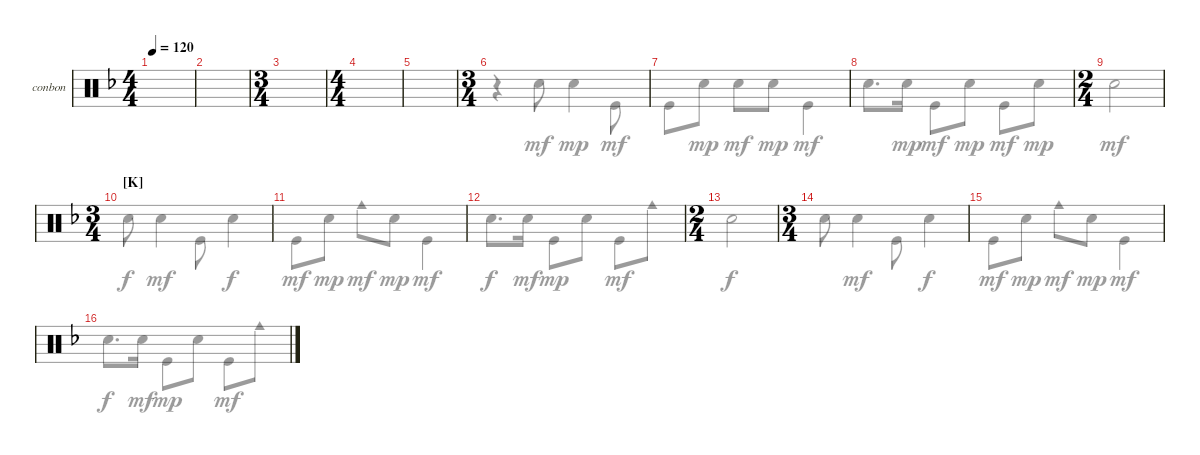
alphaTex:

\defaultSystemsLayout 4
\bracketExtendMode groupsimilarinstruments
\firstSystemTrackNameOrientation horizontal
\otherSystemsTrackNameOrientation horizontal
\track ("Bongos N Congas" "conbon") {instrument percussion}
\staff {score}
\articulation defaults
\voice
\ts (4 4)
\tempo 120
\clef neutral
\ks f
|
|
\ts (3 4)
|
\ts (4 4)
|
|
\ts (3 4)
|
|
|
\ts (2 4)
|
\ts (3 4)
\section ("K" "")
|
|
|
\ts (2 4)
|
\ts (3 4)
|
|
\voice
\clef neutral
\ks f
|
|
|
|
|
r.4 "Snare (hit) 2".8{dy mf} "Snare (hit) 2".4{dy mp} "Kick (hit)".8{dy mf} |
"Kick (hit)".8 "Snare (hit) 2".8{dy mp} "Snare (hit) 2".8{dy mf} "Snare (hit) 2".8{dy mp} "Kick (hit)".4{dy mf} |
"Snare (hit) 2".8{d} "Snare (hit) 2".16{dy mp} "Kick (hit)".8{dy mf} "Snare (hit) 2".8{dy mp} "Kick (hit)".8{dy mf} "Snare (hit) 2".8{dy mp} |
"Snare (hit) 2".2{dy mf} |
"Snare (hit) 2".8{dy f} "Snare (hit) 2".4{dy mf} "Kick (hit)".8 "Snare (hit) 2".4{dy f} |
"Kick (hit)".8{dy mf} "Snare (hit) 2".8{dy mp} "Cowbell medium (hit)".8{dy mf} "Snare (hit) 2".8{dy mp} "Kick (hit)".4{dy mf} |
"Snare (hit) 2".8{d dy f} "Snare (hit) 2".16{dy mf} "Kick (hit)".8{dy mp} "Snare (hit) 2".8 "Kick (hit)".8{dy mf} "Cowbell medium (hit)".8 |
"Snare (hit) 2".2{dy f} |
"Snare (hit) 2".8 "Snare (hit) 2".4{dy mf} "Kick (hit)".8 "Snare (hit) 2".4{dy f} |
"Kick (hit)".8{dy mf} "Snare (hit) 2".8{dy mp} "Cowbell medium (hit)".8{dy mf} "Snare (hit) 2".8{dy mp} "Kick (hit)".4{dy mf} |
"Snare (hit) 2".8{d dy f} "Snare (hit) 2".16{dy mf} "Kick (hit)".8{dy mp} "Snare (hit) 2".8 "Kick (hit)".8{dy mf} "Cowbell medium (hit)".8
